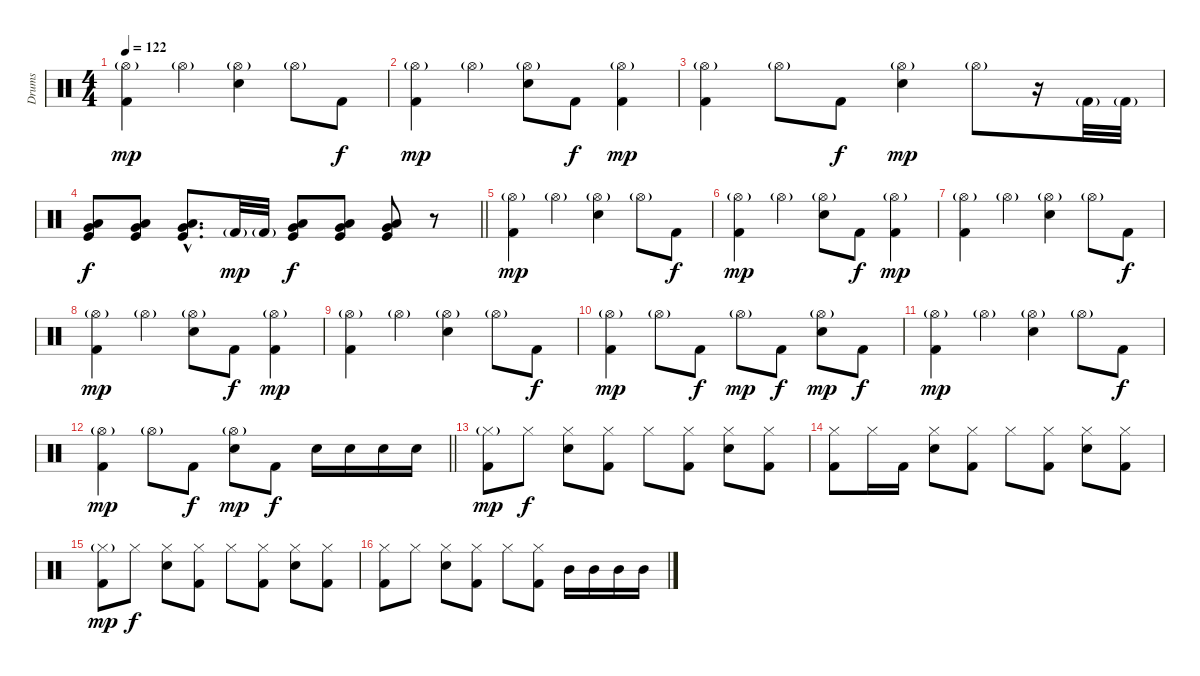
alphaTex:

\track ("Drums" "Drums") {instrument percussion}
\staff {score}
\articulation defaults
\ts (4 4)
\tempo 122
\clef neutral
\ks c
("Hi-Hat (open)"{g} "Kick (hit) 2").4{dy mp} "Hi-Hat (open)"{g}.4 ("Hi-Hat (open)"{g} "Electric Snare (hit)").4 "Hi-Hat (open)"{g}.8 "Kick (hit) 2".8{dy f} |
("Hi-Hat (open)"{g} "Kick (hit) 2").4{dy mp} "Hi-Hat (open)"{g}.4 ("Hi-Hat (open)"{g} "Electric Snare (hit)").8 "Kick (hit) 2".8{dy f} ("Hi-Hat (open)"{g} "Kick (hit) 2").4{dy mp} |
("Hi-Hat (open)"{g} "Kick (hit) 2").4 "Hi-Hat (open)"{g}.8 "Kick (hit) 2".8{dy f} ("Hi-Hat (open)"{g} "Electric Snare (hit)").4{dy mp} "Hi-Hat (open)"{g}.8 r.16 "Kick (hit) 2"{g}.32 "Kick (hit) 2"{g}.32 |
\barLineRight lightlight
("Very Low Tom (hit)" "Low Floor Tom (hit)" "Kick (hit)").8{dy f} ("Very Low Tom (hit)" "Low Floor Tom (hit)" "Kick (hit)").8 ("Very Low Tom (hit)"{hac} "Low Floor Tom (hit)"{hac} "Kick (hit)"{hac}).8{d} "Kick (hit) 2"{g}.32{dy mp} "Kick (hit) 2"{g}.32 ("Very Low Tom (hit)" "Low Floor Tom (hit)" "Kick (hit)").8{dy f} ("Very Low Tom (hit)" "Low Floor Tom (hit)" "Kick (hit)").8 ("Very Low Tom (hit)" "Low Floor Tom (hit)" "Kick (hit)").8 r.8 |
("Hi-Hat (open)"{g} "Kick (hit) 2").4{dy mp} "Hi-Hat (open)"{g}.4 ("Hi-Hat (open)"{g} "Electric Snare (hit)").4 "Hi-Hat (open)"{g}.8 "Kick (hit) 2".8{dy f} |
("Hi-Hat (open)"{g} "Kick (hit) 2").4{dy mp} "Hi-Hat (open)"{g}.4 ("Hi-Hat (open)"{g} "Electric Snare (hit)").8 "Kick (hit) 2".8{dy f} ("Hi-Hat (open)"{g} "Kick (hit) 2").4{dy mp} |
("Hi-Hat (open)"{g} "Kick (hit) 2").4 "Hi-Hat (open)"{g}.4 ("Hi-Hat (open)"{g} "Electric Snare (hit)").4 "Hi-Hat (open)"{g}.8 "Kick (hit) 2".8{dy f} |
("Hi-Hat (open)"{g} "Kick (hit) 2").4{dy mp} "Hi-Hat (open)"{g}.4 ("Hi-Hat (open)"{g} "Electric Snare (hit)").8 "Kick (hit) 2".8{dy f} ("Hi-Hat (open)"{g} "Kick (hit) 2").4{dy mp} |
("Hi-Hat (open)"{g} "Kick (hit) 2").4 "Hi-Hat (open)"{g}.4 ("Hi-Hat (open)"{g} "Electric Snare (hit)").4 "Hi-Hat (open)"{g}.8 "Kick (hit) 2".8{dy f} |
("Hi-Hat (open)"{g} "Kick (hit) 2").4{dy mp} "Hi-Hat (open)"{g}.8 "Kick (hit) 2".8{dy f} "Hi-Hat (open)"{g}.8{dy mp} "Kick (hit) 2".8{dy f} ("Hi-Hat (open)"{g} "Electric Snare (hit)").8{dy mp} "Kick (hit) 2".8{dy f} |
("Hi-Hat (open)"{g} "Kick (hit) 2").4{dy mp} "Hi-Hat (open)"{g}.4 ("Hi-Hat (open)"{g} "Electric Snare (hit)").4 "Hi-Hat (open)"{g}.8 "Kick (hit) 2".8{dy f} |
\barLineRight lightlight
("Hi-Hat (open)"{g} "Kick (hit) 2").4{dy mp} "Hi-Hat (open)"{g}.8 "Kick (hit) 2".8{dy f} ("Hi-Hat (open)"{g} "Electric Snare (hit)").8{dy mp} "Kick (hit) 2".8{dy f} "Electric Snare (hit)".16 "Electric Snare (hit)".16 "Electric Snare (hit)".16 "Electric Snare (hit)".16 |
("Hi-Hat (closed)"{g} "Kick (hit) 2").8{dy mp} "Hi-Hat (closed)".8{dy f} ("Hi-Hat (closed)" "Electric Snare (hit)").8 ("Hi-Hat (closed)" "Kick (hit) 2").8 "Hi-Hat (closed)".8 ("Hi-Hat (closed)" "Kick (hit) 2").8 ("Hi-Hat (closed)" "Electric Snare (hit)").8 ("Hi-Hat (closed)" "Kick (hit) 2").8 |
("Hi-Hat (closed)" "Kick (hit) 2").8 "Hi-Hat (closed)".16 "Kick (hit) 2".16 ("Hi-Hat (closed)" "Electric Snare (hit)").8 ("Hi-Hat (closed)" "Kick (hit) 2").8 "Hi-Hat (closed)".8 ("Hi-Hat (closed)" "Kick (hit) 2").8 ("Hi-Hat (closed)" "Electric Snare (hit)").8 ("Hi-Hat (closed)" "Kick (hit) 2").8 |
("Hi-Hat (closed)"{g} "Kick (hit) 2").8{dy mp} "Hi-Hat (closed)".8{dy f} ("Hi-Hat (closed)" "Electric Snare (hit)").8 ("Hi-Hat (closed)" "Kick (hit) 2").8 "Hi-Hat (closed)".8 ("Hi-Hat (closed)" "Kick (hit) 2").8 ("Hi-Hat (closed)" "Electric Snare (hit)").8 ("Hi-Hat (closed)" "Kick (hit) 2").8 |
("Hi-Hat (closed)" "Kick (hit) 2").8 "Hi-Hat (closed)".8 ("Hi-Hat (closed)" "Electric Snare (hit)").8 ("Hi-Hat (closed)" "Kick (hit) 2").8 "Hi-Hat (closed)".8 ("Hi-Hat (closed)" "Kick (hit) 2").8 "Mid Tom (hit)".16 "Mid Tom (hit)".16 "Mid Tom (hit)".16 "Mid Tom (hit)".16
